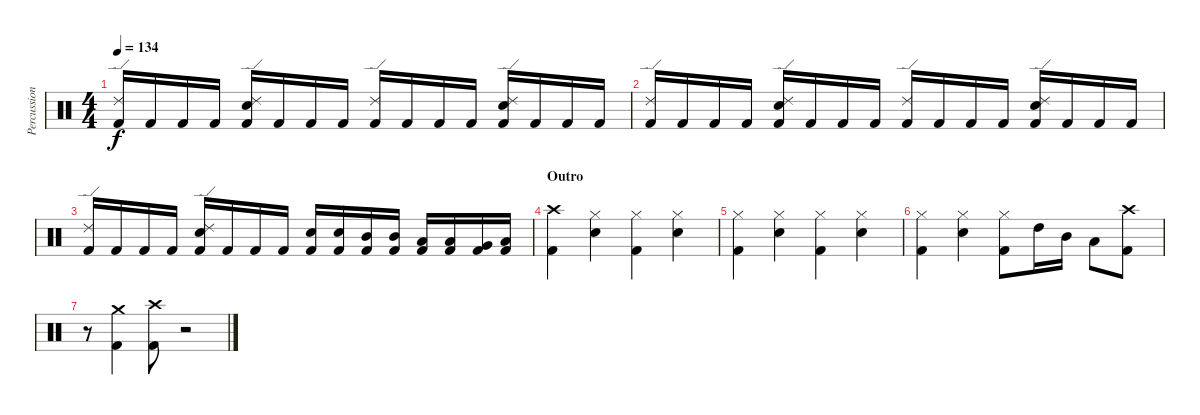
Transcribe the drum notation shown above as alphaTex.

\track ("Percussion" "Percussion") {instrument percussion}
\staff {score}
\articulation defaults
\ts (4 4)
\tempo 134
\clef neutral
\ks c
("Kick (hit) 2" "Ride (edge) 2").16{dy f} "Kick (hit) 2".16 "Kick (hit) 2".16 "Kick (hit) 2".16 ("Kick (hit) 2" "Snare (hit) 2" "Ride (edge) 2").16 "Kick (hit) 2".16 "Kick (hit) 2".16 "Kick (hit) 2".16 ("Kick (hit) 2" "Ride (edge) 2").16 "Kick (hit) 2".16 "Kick (hit) 2".16 "Kick (hit) 2".16 ("Kick (hit) 2" "Snare (hit) 2" "Ride (edge) 2").16 "Kick (hit) 2".16 "Kick (hit) 2".16 "Kick (hit) 2".16 |
("Kick (hit) 2" "Ride (edge) 2").16 "Kick (hit) 2".16 "Kick (hit) 2".16 "Kick (hit) 2".16 ("Kick (hit) 2" "Snare (hit) 2" "Ride (edge) 2").16 "Kick (hit) 2".16 "Kick (hit) 2".16 "Kick (hit) 2".16 ("Kick (hit) 2" "Ride (edge) 2").16 "Kick (hit) 2".16 "Kick (hit) 2".16 "Kick (hit) 2".16 ("Kick (hit) 2" "Snare (hit) 2" "Ride (edge) 2").16 "Kick (hit) 2".16 "Kick (hit) 2".16 "Kick (hit) 2".16 |
("Kick (hit) 2" "Ride (edge) 2").16 "Kick (hit) 2".16 "Kick (hit) 2".16 "Kick (hit) 2".16 ("Kick (hit) 2" "Snare (hit) 2" "Ride (edge) 2").16 "Kick (hit) 2".16 "Kick (hit) 2".16 "Kick (hit) 2".16 ("Kick (hit) 2" "Snare (hit) 2").16 ("Kick (hit) 2" "Snare (hit) 2").16 ("Kick (hit) 2" "Mid Tom (hit)").16 ("Kick (hit) 2" "Mid Tom (hit)").16 ("Kick (hit) 2" "Low Tom (hit)").16 ("Kick (hit) 2" "Low Tom (hit)").16 ("Kick (hit) 2" "Very Low Tom (hit)").16 ("Kick (hit) 2" "Low Floor Tom (hit)").16 |
\section ("" "Outro")
("Kick (hit) 2" "Crash high (hit)").4 ("Snare (hit) 2" "Hi-Hat (closed)").4 ("Kick (hit) 2" "Hi-Hat (closed)").4 ("Snare (hit) 2" "Hi-Hat (closed)").4 |
("Kick (hit) 2" "Hi-Hat (closed)").4 ("Snare (hit) 2" "Hi-Hat (closed)").4 ("Kick (hit) 2" "Hi-Hat (closed)").4 ("Snare (hit) 2" "Hi-Hat (closed)").4 |
("Kick (hit) 2" "Hi-Hat (closed)").4 ("Snare (hit) 2" "Hi-Hat (closed)").4 ("Kick (hit) 2" "Hi-Hat (closed)").8 "High Tom (hit)".16 "Mid Tom (hit)".16 "Low Tom (hit)".8 ("Kick (hit) 2" "Crash high (hit)").8 |
r.8 ("Kick (hit) 2" "Crash medium (hit)").4 ("Kick (hit) 2" "Crash high (hit)").8 r.2
